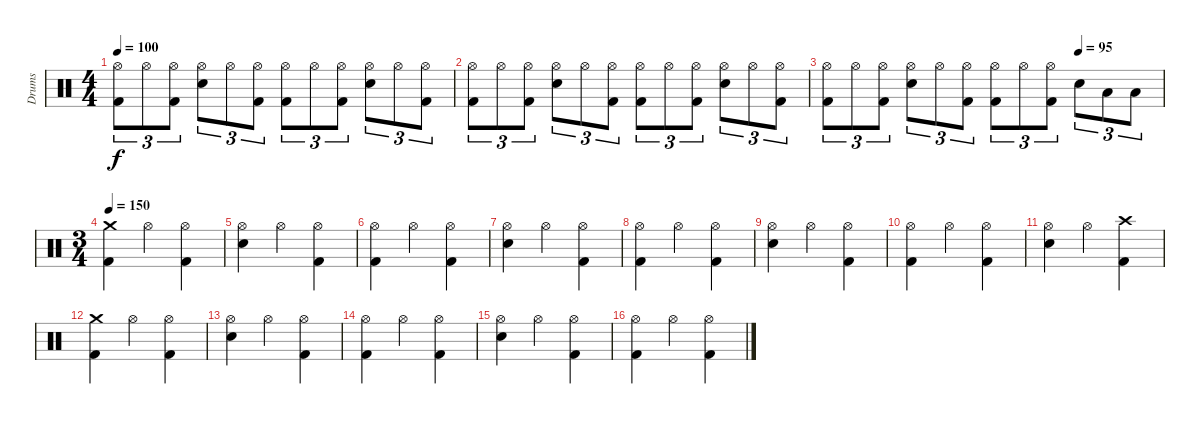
\track ("Drums" "Drums") {instrument percussion}
\staff {score}
\articulation defaults
\ts (4 4)
\tempo 100
\clef neutral
\ks c
("Hi-Hat (open)" "Kick (hit) 2").8{tu (3 2) dy f} "Hi-Hat (open)".8{tu (3 2)} ("Hi-Hat (open)" "Kick (hit) 2").8{tu (3 2)} ("Hi-Hat (open)" "Electric Snare (hit)").8{tu (3 2)} "Hi-Hat (open)".8{tu (3 2)} ("Hi-Hat (open)" "Kick (hit) 2").8{tu (3 2)} ("Hi-Hat (open)" "Kick (hit) 2").8{tu (3 2)} "Hi-Hat (open)".8{tu (3 2)} ("Hi-Hat (open)" "Kick (hit) 2").8{tu (3 2)} ("Hi-Hat (open)" "Electric Snare (hit)").8{tu (3 2)} "Hi-Hat (open)".8{tu (3 2)} ("Hi-Hat (open)" "Kick (hit) 2").8{tu (3 2)} |
("Hi-Hat (open)" "Kick (hit) 2").8{tu (3 2)} "Hi-Hat (open)".8{tu (3 2)} ("Hi-Hat (open)" "Kick (hit) 2").8{tu (3 2)} ("Hi-Hat (open)" "Electric Snare (hit)").8{tu (3 2)} "Hi-Hat (open)".8{tu (3 2)} ("Hi-Hat (open)" "Kick (hit) 2").8{tu (3 2)} ("Hi-Hat (open)" "Kick (hit) 2").8{tu (3 2)} "Hi-Hat (open)".8{tu (3 2)} ("Hi-Hat (open)" "Kick (hit) 2").8{tu (3 2)} ("Hi-Hat (open)" "Electric Snare (hit)").8{tu (3 2)} "Hi-Hat (open)".8{tu (3 2)} ("Hi-Hat (open)" "Kick (hit) 2").8{tu (3 2)} |
\tempo (95 0.75)
("Hi-Hat (open)" "Kick (hit) 2").8{tu (3 2)} "Hi-Hat (open)".8{tu (3 2)} ("Hi-Hat (open)" "Kick (hit) 2").8{tu (3 2)} ("Hi-Hat (open)" "Electric Snare (hit)").8{tu (3 2)} "Hi-Hat (open)".8{tu (3 2)} ("Hi-Hat (open)" "Kick (hit) 2").8{tu (3 2)} ("Hi-Hat (open)" "Kick (hit) 2").8{tu (3 2)} "Hi-Hat (open)".8{tu (3 2)} ("Hi-Hat (open)" "Kick (hit) 2").8{tu (3 2)} "Electric Snare (hit)".8{tu (3 2)} "Low Tom (hit)".8{tu (3 2)} "Low Tom (hit)".8{tu (3 2)} |
\ts (3 4)
\tempo 150
("Crash medium (hit)" "Kick (hit) 2").4 "Hi-Hat (open)".4 ("Hi-Hat (open)" "Kick (hit) 2").4 |
("Hi-Hat (open)" "Electric Snare (hit)").4 "Hi-Hat (open)".4 ("Hi-Hat (open)" "Kick (hit) 2").4 |
("Hi-Hat (open)" "Kick (hit) 2").4 "Hi-Hat (open)".4 ("Hi-Hat (open)" "Kick (hit) 2").4 |
("Hi-Hat (open)" "Electric Snare (hit)").4 "Hi-Hat (open)".4 ("Hi-Hat (open)" "Kick (hit) 2").4 |
("Hi-Hat (open)" "Kick (hit) 2").4 "Hi-Hat (open)".4 ("Hi-Hat (open)" "Kick (hit) 2").4 |
("Hi-Hat (open)" "Electric Snare (hit)").4 "Hi-Hat (open)".4 ("Hi-Hat (open)" "Kick (hit) 2").4 |
("Hi-Hat (open)" "Kick (hit) 2").4 "Hi-Hat (open)".4 ("Hi-Hat (open)" "Kick (hit) 2").4 |
("Hi-Hat (open)" "Electric Snare (hit)").4 "Hi-Hat (open)".4 ("Crash high (hit)" "Kick (hit) 2").4 |
("Crash medium (hit)" "Kick (hit) 2").4 "Hi-Hat (open)".4 ("Hi-Hat (open)" "Kick (hit) 2").4 |
("Hi-Hat (open)" "Electric Snare (hit)").4 "Hi-Hat (open)".4 ("Hi-Hat (open)" "Kick (hit) 2").4 |
("Hi-Hat (open)" "Kick (hit) 2").4 "Hi-Hat (open)".4 ("Hi-Hat (open)" "Kick (hit) 2").4 |
("Hi-Hat (open)" "Electric Snare (hit)").4 "Hi-Hat (open)".4 ("Hi-Hat (open)" "Kick (hit) 2").4 |
("Hi-Hat (open)" "Kick (hit) 2").4 "Hi-Hat (open)".4 ("Hi-Hat (open)" "Kick (hit) 2").4
